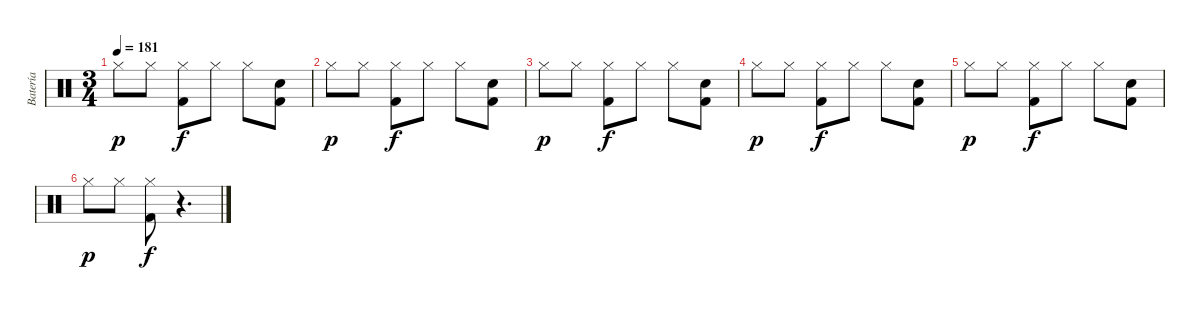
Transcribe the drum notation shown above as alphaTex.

\track ("Batería" "Batería") {instrument percussion}
\staff {score}
\articulation defaults
\ts (3 4)
\tempo 181
\clef neutral
\ks c "Hi-Hat (closed)".8{dy p} "Hi-Hat (closed)".8
("Hi-Hat (closed)" "Kick (hit) 2").8{dy f} "Hi-Hat (closed)".8 "Hi-Hat (closed)".8 ("Electric Snare (hit)" "Kick (hit) 2").8 |
"Hi-Hat (closed)".8{dy p} "Hi-Hat (closed)".8 ("Hi-Hat (closed)" "Kick (hit) 2").8{dy f} "Hi-Hat (closed)".8 "Hi-Hat (closed)".8 ("Electric Snare (hit)" "Kick (hit) 2").8 |
"Hi-Hat (closed)".8{dy p} "Hi-Hat (closed)".8 ("Hi-Hat (closed)" "Kick (hit) 2").8{dy f} "Hi-Hat (closed)".8 "Hi-Hat (closed)".8 ("Electric Snare (hit)" "Kick (hit) 2").8 |
"Hi-Hat (closed)".8{dy p} "Hi-Hat (closed)".8 ("Hi-Hat (closed)" "Kick (hit) 2").8{dy f} "Hi-Hat (closed)".8 "Hi-Hat (closed)".8 ("Electric Snare (hit)" "Kick (hit) 2").8 |
"Hi-Hat (closed)".8{dy p} "Hi-Hat (closed)".8 ("Hi-Hat (closed)" "Kick (hit) 2").8{dy f} "Hi-Hat (closed)".8 "Hi-Hat (closed)".8 ("Electric Snare (hit)" "Kick (hit) 2").8 |
"Hi-Hat (closed)".8{dy p} "Hi-Hat (closed)".8 ("Hi-Hat (closed)" "Kick (hit) 2").8{dy f} r.4{d}
